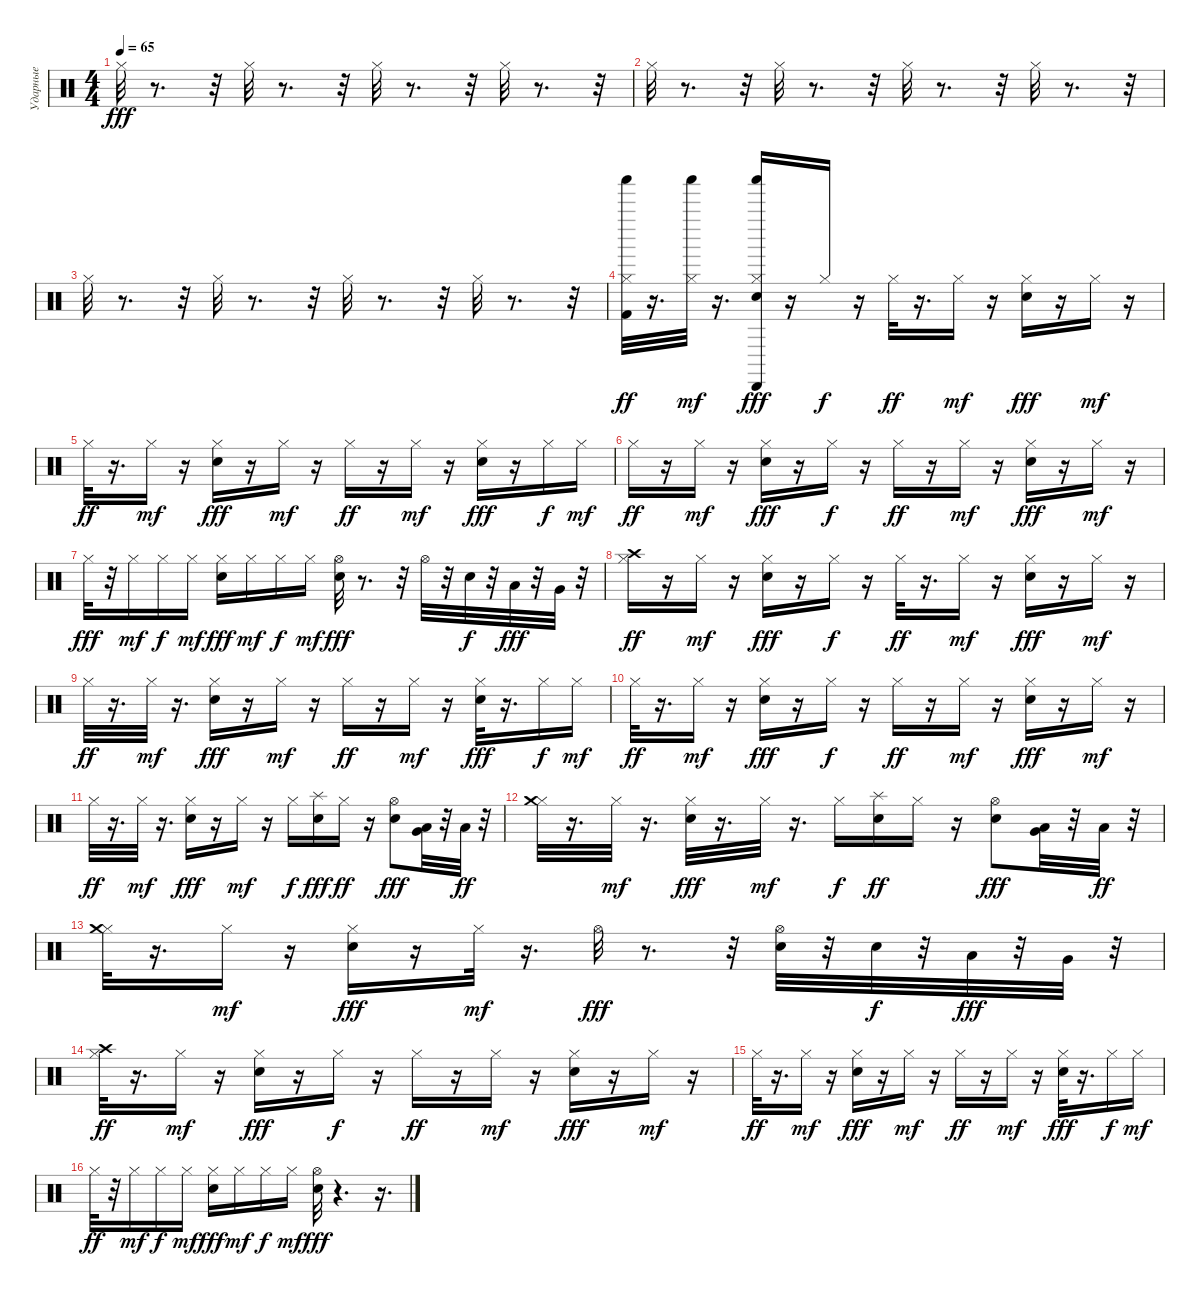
\track ("Ударные" "Ударные") {instrument percussion}
\staff {score}
\articulation defaults
\ts (4 4)
\tempo 65
\clef neutral
\ks c "Hi-Hat (closed)".32{dy fff}
r.8{d} r.32 "Hi-Hat (closed)".32 r.8{d} r.32 "Hi-Hat (closed)".32 r.8{d} r.32 "Hi-Hat (closed)".32 r.8{d} r.32 |
"Hi-Hat (closed)".32 r.8{d} r.32 "Hi-Hat (closed)".32 r.8{d} r.32 "Hi-Hat (closed)".32 r.8{d} r.32 "Hi-Hat (closed)".32 r.8{d} r.32 |
"Hi-Hat (closed)".32 r.8{d} r.32 "Hi-Hat (closed)".32 r.8{d} r.32 "Hi-Hat (closed)".32 r.8{d} r.32 "Hi-Hat (closed)".32 r.8{d} r.32 |
("Hi-Hat (closed)" "Kick (hit) 2" "Shaker (hit)").32{dy ff} r.16{d} ("Hi-Hat (closed)" "Shaker (hit)").32{dy mf} r.16{d} ("Snare (hit) 2" "Hi-Hat (closed)" "Cabasa (hit)" "Shaker (hit)").16{dy fff} r.16 "Hi-Hat (closed)".16{dy f} r.16 "Hi-Hat (closed)".32{dy ff} r.16{d} "Hi-Hat (closed)".16{dy mf} r.16 ("Snare (hit) 2" "Hi-Hat (closed)").16{dy fff} r.16 "Hi-Hat (closed)".16{dy mf} r.16 |
"Hi-Hat (closed)".32{dy ff} r.16{d} "Hi-Hat (closed)".16{dy mf} r.16 ("Hi-Hat (closed)" "Snare (hit) 2").16{dy fff} r.16 "Hi-Hat (closed)".16{dy mf} r.16 "Hi-Hat (closed)".16{dy ff} r.16 "Hi-Hat (closed)".16{dy mf} r.16 ("Hi-Hat (closed)" "Snare (hit) 2").16{dy fff} r.16 "Hi-Hat (closed)".16{dy f} "Hi-Hat (closed)".16{dy mf} |
"Hi-Hat (closed)".16{dy ff} r.16 "Hi-Hat (closed)".16{dy mf} r.16 ("Snare (hit) 2" "Hi-Hat (closed)").16{dy fff} r.16 "Hi-Hat (closed)".16{dy f} r.16 "Hi-Hat (closed)".16{dy ff} r.16 "Hi-Hat (closed)".16{dy mf} r.16 ("Snare (hit) 2" "Hi-Hat (closed)").16{dy fff} r.16 "Hi-Hat (closed)".16{dy mf} r.16 |
"Hi-Hat (closed)".32{dy fff} r.32 "Hi-Hat (closed)".16{dy mf} "Hi-Hat (closed)".16{dy f} "Hi-Hat (closed)".16{dy mf} ("Snare (hit) 2" "Hi-Hat (closed)").16{dy fff} "Hi-Hat (closed)".16{dy mf} "Hi-Hat (closed)".16{dy f} "Hi-Hat (closed)".16{dy mf} ("Snare (hit) 2" "Hi-Hat (open)").32{dy fff} r.8{d} r.32 "Hi-Hat (open)".32 r.32 "Snare (hit) 2".32{dy f} r.32 "Low Tom (hit)".32{dy fff} r.32 "Very Low Tom (hit)".32 r.32 |
("Hi-Hat (closed)" "Crash high (hit)").16{dy ff} r.16 "Hi-Hat (closed)".16{dy mf} r.16 ("Snare (hit) 2" "Hi-Hat (closed)").16{dy fff} r.16 "Hi-Hat (closed)".16{dy f} r.16 "Hi-Hat (closed)".32{dy ff} r.16{d} "Hi-Hat (closed)".16{dy mf} r.16 ("Snare (hit) 2" "Hi-Hat (closed)").16{dy fff} r.16 "Hi-Hat (closed)".16{dy mf} r.16 |
"Hi-Hat (closed)".32{dy ff} r.16{d} "Hi-Hat (closed)".32{dy mf} r.16{d} ("Snare (hit) 2" "Hi-Hat (closed)").16{dy fff} r.16 "Hi-Hat (closed)".16{dy mf} r.16 "Hi-Hat (closed)".16{dy ff} r.16 "Hi-Hat (closed)".16{dy mf} r.16 ("Snare (hit) 2" "Hi-Hat (closed)").32{dy fff} r.16{d} "Hi-Hat (closed)".16{dy f} "Hi-Hat (closed)".16{dy mf} |
"Hi-Hat (closed)".32{dy ff} r.16{d} "Hi-Hat (closed)".16{dy mf} r.16 ("Hi-Hat (closed)" "Snare (hit) 2").16{dy fff} r.16 "Hi-Hat (closed)".16{dy f} r.16 "Hi-Hat (closed)".16{dy ff} r.16 "Hi-Hat (closed)".16{dy mf} r.16 ("Snare (hit) 2" "Hi-Hat (closed)").16{dy fff} r.16 "Hi-Hat (closed)".16{dy mf} r.16 |
"Hi-Hat (closed)".32{dy ff} r.16{d} "Hi-Hat (closed)".32{dy mf} r.16{d} ("Snare (hit) 2" "Hi-Hat (closed)").16{dy fff} r.16 "Hi-Hat (closed)".16{dy mf} r.16 "Hi-Hat (closed)".16{dy f} ("Splash (hit)" "Snare (hit) 2").16{dy fff} "Hi-Hat (closed)".16{dy ff} r.16 ("Snare (hit) 2" "Hi-Hat (open)").8{dy fff} ("Low Tom (hit)" "Very Low Tom (hit)").32 r.32 "Low Floor Tom (hit)".32{dy ff} r.32 |
("Hi-Hat (closed)" "Crash medium (hit)").32 r.16{d} "Hi-Hat (closed)".32{dy mf} r.16{d} ("Hi-Hat (closed)" "Snare (hit) 2").32{dy fff} r.16{d} "Hi-Hat (closed)".32{dy mf} r.16{d} "Hi-Hat (closed)".16{dy f} ("Snare (hit) 2" "Splash (hit)").16{dy ff} "Hi-Hat (closed)".16 r.16 ("Snare (hit) 2" "Hi-Hat (open)").8{dy fff} ("Very Low Tom (hit)" "Low Tom (hit)").32 r.32 "Low Floor Tom (hit)".32{dy ff} r.32 |
("Hi-Hat (closed)" "Crash medium (hit)").32 r.16{d} "Hi-Hat (closed)".16{dy mf} r.16 ("Hi-Hat (closed)" "Snare (hit) 2").16{dy fff} r.16 "Hi-Hat (closed)".32{dy mf} r.16{d} "Hi-Hat (open)".32{dy fff} r.8{d} r.32 ("Hi-Hat (open)" "Snare (hit) 2").32 r.32 "Snare (hit) 2".32{dy f} r.32 "Low Tom (hit)".32{dy fff} r.32 "Very Low Tom (hit)".32 r.32 |
("Hi-Hat (closed)" "Crash high (hit)").32{dy ff} r.16{d} "Hi-Hat (closed)".16{dy mf} r.16 ("Snare (hit) 2" "Hi-Hat (closed)").16{dy fff} r.16 "Hi-Hat (closed)".16{dy f} r.16 "Hi-Hat (closed)".16{dy ff} r.16 "Hi-Hat (closed)".16{dy mf} r.16 ("Hi-Hat (closed)" "Snare (hit) 2").16{dy fff} r.16 "Hi-Hat (closed)".16{dy mf} r.16 |
"Hi-Hat (closed)".32{dy ff} r.16{d} "Hi-Hat (closed)".16{dy mf} r.16 ("Hi-Hat (closed)" "Snare (hit) 2").16{dy fff} r.16 "Hi-Hat (closed)".16{dy mf} r.16 "Hi-Hat (closed)".16{dy ff} r.16 "Hi-Hat (closed)".16{dy mf} r.16 ("Snare (hit) 2" "Hi-Hat (closed)").32{dy fff} r.16{d} "Hi-Hat (closed)".16{dy f} "Hi-Hat (closed)".16{dy mf} |
"Hi-Hat (closed)".32{dy ff} r.32 "Hi-Hat (closed)".16{dy mf} "Hi-Hat (closed)".16{dy f} "Hi-Hat (closed)".16{dy mf} ("Snare (hit) 2" "Hi-Hat (closed)").16{dy fff} "Hi-Hat (closed)".16{dy mf} "Hi-Hat (closed)".16{dy f} "Hi-Hat (closed)".16{dy mf} ("Snare (hit) 2" "Hi-Hat (open)").32{dy fff} r.4{d} r.16{d}
